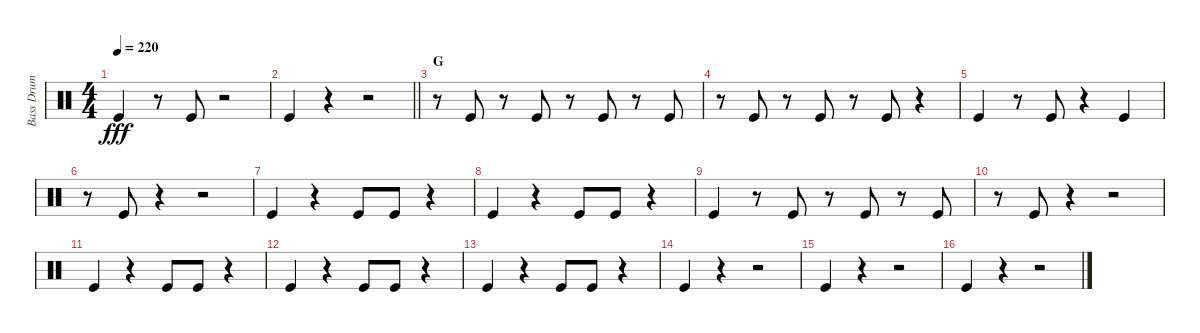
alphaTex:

\track ("Bass Drum" "Bass Drum") {instrument percussion}
\staff {score}
\articulation defaults
\ts (4 4)
\tempo 220
\clef neutral
\ks c "Kick (hit)".4{dy fff}
r.8 "Kick (hit)".8 r.2 |
\barLineRight lightlight "Kick (hit)".4
r.4 r.2 |
\section ("" "G")
r.8 "Kick (hit)".8 r.8 "Kick (hit)".8 r.8 "Kick (hit)".8 r.8 "Kick (hit)".8 |
r.8 "Kick (hit)".8 r.8 "Kick (hit)".8 r.8 "Kick (hit)".8 r.4 |
"Kick (hit)".4 r.8 "Kick (hit)".8 r.4 "Kick (hit)".4 |
r.8 "Kick (hit)".8 r.4 r.2 |
"Kick (hit)".4 r.4 "Kick (hit)".8 "Kick (hit)".8 r.4 |
"Kick (hit)".4 r.4 "Kick (hit)".8 "Kick (hit)".8 r.4 |
"Kick (hit)".4 r.8 "Kick (hit)".8 r.8 "Kick (hit)".8 r.8 "Kick (hit)".8 |
r.8 "Kick (hit)".8 r.4 r.2 |
"Kick (hit)".4 r.4 "Kick (hit)".8 "Kick (hit)".8 r.4 |
"Kick (hit)".4 r.4 "Kick (hit)".8 "Kick (hit)".8 r.4 |
"Kick (hit)".4 r.4 "Kick (hit)".8 "Kick (hit)".8 r.4 |
"Kick (hit)".4 r.4 r.2 |
"Kick (hit)".4 r.4 r.2 |
"Kick (hit)".4 r.4 r.2
